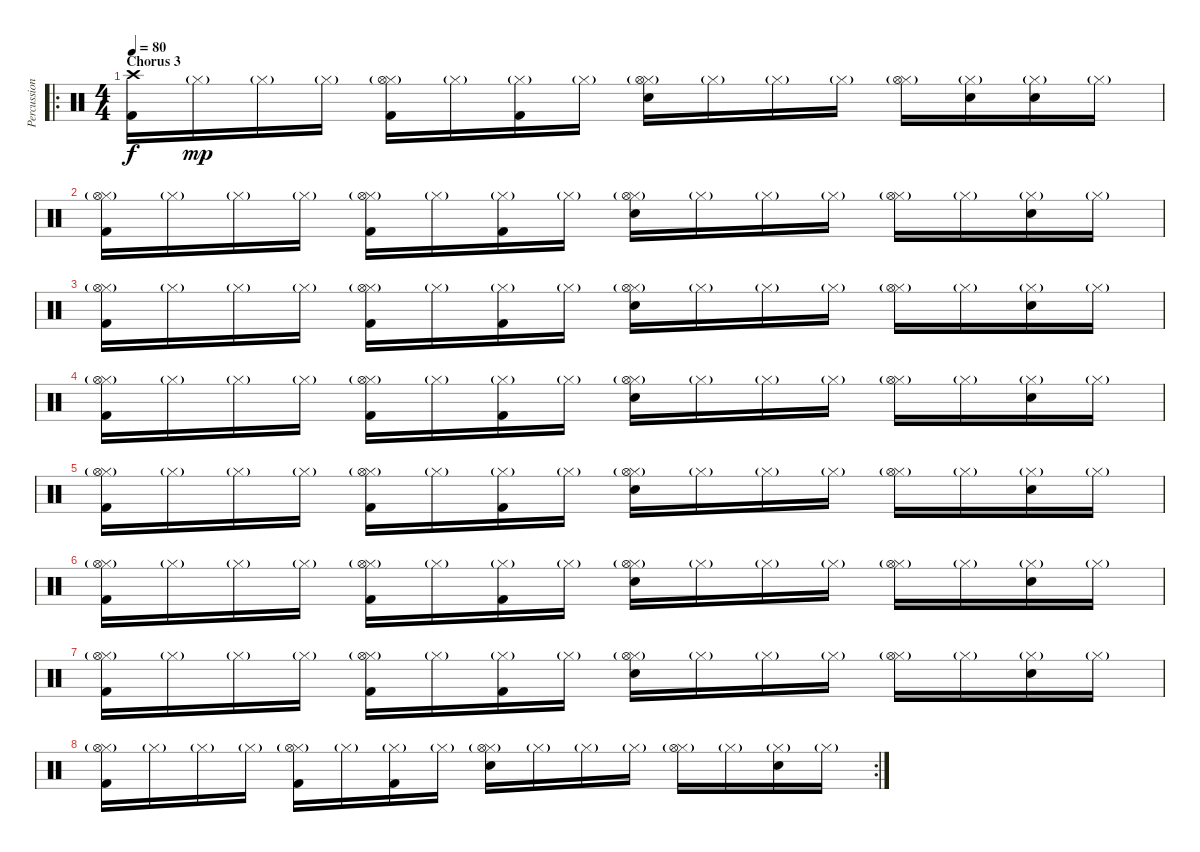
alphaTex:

\track ("Percussions" "Percussion") {instrument percussion}
\staff {score}
\articulation defaults
\ro
\ts (4 4)
\section ("" "Chorus 3")
\tempo 80
\clef neutral
\ks c
("Crash high (hit)" "Kick (hit) 2").16{dy f} "Hi-Hat (closed)"{g}.16{dy mp} "Hi-Hat (closed)"{g}.16 "Hi-Hat (closed)"{g}.16 ("Hi-Hat (closed)"{g} "Hi-Hat (open)" "Kick (hit) 2").16 "Hi-Hat (closed)"{g}.16 ("Hi-Hat (closed)"{g} "Kick (hit) 2").16 "Hi-Hat (closed)"{g}.16 ("Hi-Hat (closed)"{g} "Hi-Hat (open)" "Snare (hit) 2").16 "Hi-Hat (closed)"{g}.16 "Hi-Hat (closed)"{g}.16 "Hi-Hat (closed)"{g}.16 ("Hi-Hat (closed)"{g} "Hi-Hat (open)").16 ("Hi-Hat (closed)"{g} "Hand Clap (hit)").16 ("Hi-Hat (closed)"{g} "Snare (hit) 2").16 "Hi-Hat (closed)"{g}.16 |
("Hi-Hat (closed)"{g} "Hi-Hat (open)" "Kick (hit) 2").16 "Hi-Hat (closed)"{g}.16 "Hi-Hat (closed)"{g}.16 "Hi-Hat (closed)"{g}.16 ("Hi-Hat (closed)"{g} "Hi-Hat (open)" "Kick (hit) 2").16 "Hi-Hat (closed)"{g}.16 ("Hi-Hat (closed)"{g} "Kick (hit) 2").16 "Hi-Hat (closed)"{g}.16 ("Hi-Hat (closed)"{g} "Hi-Hat (open)" "Snare (hit) 2").16 "Hi-Hat (closed)"{g}.16 "Hi-Hat (closed)"{g}.16 "Hi-Hat (closed)"{g}.16 ("Hi-Hat (closed)"{g} "Hi-Hat (open)").16 "Hi-Hat (closed)"{g}.16 ("Hi-Hat (closed)"{g} "Snare (hit) 2").16 "Hi-Hat (closed)"{g}.16 |
("Hi-Hat (closed)"{g} "Hi-Hat (open)" "Kick (hit) 2").16 "Hi-Hat (closed)"{g}.16 "Hi-Hat (closed)"{g}.16 "Hi-Hat (closed)"{g}.16 ("Hi-Hat (closed)"{g} "Hi-Hat (open)" "Kick (hit) 2").16 "Hi-Hat (closed)"{g}.16 ("Hi-Hat (closed)"{g} "Kick (hit) 2").16 "Hi-Hat (closed)"{g}.16 ("Hi-Hat (closed)"{g} "Hi-Hat (open)" "Snare (hit) 2").16 "Hi-Hat (closed)"{g}.16 "Hi-Hat (closed)"{g}.16 "Hi-Hat (closed)"{g}.16 ("Hi-Hat (closed)"{g} "Hi-Hat (open)").16 "Hi-Hat (closed)"{g}.16 ("Hi-Hat (closed)"{g} "Snare (hit) 2").16 "Hi-Hat (closed)"{g}.16 |
("Hi-Hat (closed)"{g} "Hi-Hat (open)" "Kick (hit) 2").16 "Hi-Hat (closed)"{g}.16 "Hi-Hat (closed)"{g}.16 "Hi-Hat (closed)"{g}.16 ("Hi-Hat (closed)"{g} "Hi-Hat (open)" "Kick (hit) 2").16 "Hi-Hat (closed)"{g}.16 ("Hi-Hat (closed)"{g} "Kick (hit) 2").16 "Hi-Hat (closed)"{g}.16 ("Hi-Hat (closed)"{g} "Hi-Hat (open)" "Snare (hit) 2").16 "Hi-Hat (closed)"{g}.16 "Hi-Hat (closed)"{g}.16 "Hi-Hat (closed)"{g}.16 ("Hi-Hat (closed)"{g} "Hi-Hat (open)").16 "Hi-Hat (closed)"{g}.16 ("Hi-Hat (closed)"{g} "Snare (hit) 2").16 "Hi-Hat (closed)"{g}.16 |
("Hi-Hat (closed)"{g} "Hi-Hat (open)" "Kick (hit) 2").16 "Hi-Hat (closed)"{g}.16 "Hi-Hat (closed)"{g}.16 "Hi-Hat (closed)"{g}.16 ("Hi-Hat (closed)"{g} "Hi-Hat (open)" "Kick (hit) 2").16 "Hi-Hat (closed)"{g}.16 ("Hi-Hat (closed)"{g} "Kick (hit) 2").16 "Hi-Hat (closed)"{g}.16 ("Hi-Hat (closed)"{g} "Hi-Hat (open)" "Snare (hit) 2").16 "Hi-Hat (closed)"{g}.16 "Hi-Hat (closed)"{g}.16 "Hi-Hat (closed)"{g}.16 ("Hi-Hat (closed)"{g} "Hi-Hat (open)").16 "Hi-Hat (closed)"{g}.16 ("Hi-Hat (closed)"{g} "Snare (hit) 2").16 "Hi-Hat (closed)"{g}.16 |
("Hi-Hat (closed)"{g} "Hi-Hat (open)" "Kick (hit) 2").16 "Hi-Hat (closed)"{g}.16 "Hi-Hat (closed)"{g}.16 "Hi-Hat (closed)"{g}.16 ("Hi-Hat (closed)"{g} "Hi-Hat (open)" "Kick (hit) 2").16 "Hi-Hat (closed)"{g}.16 ("Hi-Hat (closed)"{g} "Kick (hit) 2").16 "Hi-Hat (closed)"{g}.16 ("Hi-Hat (closed)"{g} "Hi-Hat (open)" "Snare (hit) 2").16 "Hi-Hat (closed)"{g}.16 "Hi-Hat (closed)"{g}.16 "Hi-Hat (closed)"{g}.16 ("Hi-Hat (closed)"{g} "Hi-Hat (open)").16 "Hi-Hat (closed)"{g}.16 ("Hi-Hat (closed)"{g} "Snare (hit) 2").16 "Hi-Hat (closed)"{g}.16 |
("Hi-Hat (closed)"{g} "Hi-Hat (open)" "Kick (hit) 2").16 "Hi-Hat (closed)"{g}.16 "Hi-Hat (closed)"{g}.16 "Hi-Hat (closed)"{g}.16 ("Hi-Hat (closed)"{g} "Hi-Hat (open)" "Kick (hit) 2").16 "Hi-Hat (closed)"{g}.16 ("Hi-Hat (closed)"{g} "Kick (hit) 2").16 "Hi-Hat (closed)"{g}.16 ("Hi-Hat (closed)"{g} "Hi-Hat (open)" "Snare (hit) 2").16 "Hi-Hat (closed)"{g}.16 "Hi-Hat (closed)"{g}.16 "Hi-Hat (closed)"{g}.16 ("Hi-Hat (closed)"{g} "Hi-Hat (open)").16 "Hi-Hat (closed)"{g}.16 ("Hi-Hat (closed)"{g} "Snare (hit) 2").16 "Hi-Hat (closed)"{g}.16 |
\rc 2
("Hi-Hat (closed)"{g} "Hi-Hat (open)" "Kick (hit) 2").16 "Hi-Hat (closed)"{g}.16 "Hi-Hat (closed)"{g}.16 "Hi-Hat (closed)"{g}.16 ("Hi-Hat (closed)"{g} "Hi-Hat (open)" "Kick (hit) 2").16 "Hi-Hat (closed)"{g}.16 ("Hi-Hat (closed)"{g} "Kick (hit) 2").16 "Hi-Hat (closed)"{g}.16 ("Hi-Hat (closed)"{g} "Hi-Hat (open)" "Snare (hit) 2").16 "Hi-Hat (closed)"{g}.16 "Hi-Hat (closed)"{g}.16 "Hi-Hat (closed)"{g}.16 ("Hi-Hat (closed)"{g} "Hi-Hat (open)").16 "Hi-Hat (closed)"{g}.16 ("Hi-Hat (closed)"{g} "Snare (hit) 2").16 "Hi-Hat (closed)"{g}.16
